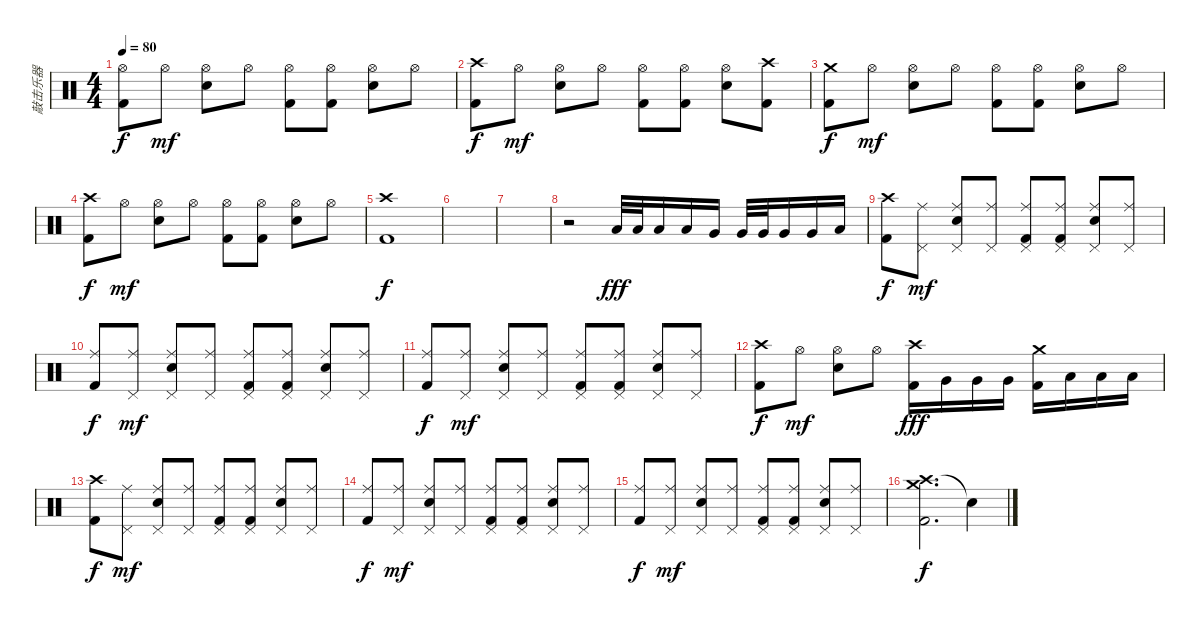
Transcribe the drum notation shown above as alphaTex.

\track ("敲击乐器" "敲击乐器") {instrument percussion}
\staff {score}
\articulation defaults
\ts (4 4)
\tempo 80
\clef neutral
\ks c
("Hi-Hat (open)" "Kick (hit) 2").8{dy f} "Hi-Hat (open)".8{dy mf} ("Electric Snare (hit)" "Hi-Hat (open)").8 "Hi-Hat (open)".8 ("Kick (hit) 2" "Hi-Hat (open)").8 ("Kick (hit) 2" "Hi-Hat (open)").8 ("Electric Snare (hit)" "Hi-Hat (open)").8 "Hi-Hat (open)".8 |
("Crash high (hit)" "Kick (hit) 2").8{dy f} "Hi-Hat (open)".8{dy mf} ("Electric Snare (hit)" "Hi-Hat (open)").8 "Hi-Hat (open)".8 ("Kick (hit) 2" "Hi-Hat (open)").8 ("Kick (hit) 2" "Hi-Hat (open)").8 ("Electric Snare (hit)" "Hi-Hat (open)").8 ("Crash high (hit)" "Kick (hit) 2").8 |
("Crash medium (hit)" "Kick (hit) 2").8{dy f} "Hi-Hat (open)".8{dy mf} ("Electric Snare (hit)" "Hi-Hat (open)").8 "Hi-Hat (open)".8 ("Kick (hit) 2" "Hi-Hat (open)").8 ("Kick (hit) 2" "Hi-Hat (open)").8 ("Electric Snare (hit)" "Hi-Hat (open)").8 "Hi-Hat (open)".8 |
("Crash high (hit)" "Kick (hit) 2").8{dy f} "Hi-Hat (open)".8{dy mf} ("Electric Snare (hit)" "Hi-Hat (open)").8 "Hi-Hat (open)".8 ("Kick (hit) 2" "Hi-Hat (open)").8 ("Kick (hit) 2" "Hi-Hat (open)").8 ("Electric Snare (hit)" "Hi-Hat (open)").8 "Hi-Hat (open)".8 |
("Crash high (hit)" "Kick (hit) 2").1{dy f} |
|
|
r.2 "Low Tom (hit)".32{dy fff} "Low Tom (hit)".32 "Low Tom (hit)".16 "Low Tom (hit)".16 "Very Low Tom (hit)".16 "Very Low Tom (hit)".32 "Very Low Tom (hit)".32 "Very Low Tom (hit)".16 "Very Low Tom (hit)".16 "Low Floor Tom (hit)".16 |
("Crash high (hit)" "Kick (hit) 2").8{dy f} ("Ride (middle)" "Pedal Hi-Hat (hit)").8{dy mf} ("Ride (middle)" "Electric Snare (hit)" "Pedal Hi-Hat (hit)").8 ("Ride (middle)" "Pedal Hi-Hat (hit)").8 ("Ride (middle)" "Kick (hit) 2" "Pedal Hi-Hat (hit)").8 ("Ride (middle)" "Kick (hit) 2" "Pedal Hi-Hat (hit)").8 ("Ride (middle)" "Electric Snare (hit)" "Pedal Hi-Hat (hit)").8 ("Ride (middle)" "Pedal Hi-Hat (hit)").8 |
("Ride (middle)" "Kick (hit) 2").8{dy f} ("Ride (middle)" "Pedal Hi-Hat (hit)").8{dy mf} ("Ride (middle)" "Electric Snare (hit)" "Pedal Hi-Hat (hit)").8 ("Ride (middle)" "Pedal Hi-Hat (hit)").8 ("Ride (middle)" "Kick (hit) 2" "Pedal Hi-Hat (hit)").8 ("Ride (middle)" "Kick (hit) 2" "Pedal Hi-Hat (hit)").8 ("Ride (middle)" "Electric Snare (hit)" "Pedal Hi-Hat (hit)").8 ("Ride (middle)" "Pedal Hi-Hat (hit)").8 |
("Ride (middle)" "Kick (hit) 2").8{dy f} ("Ride (middle)" "Pedal Hi-Hat (hit)").8{dy mf} ("Ride (middle)" "Electric Snare (hit)" "Pedal Hi-Hat (hit)").8 ("Ride (middle)" "Pedal Hi-Hat (hit)").8 ("Ride (middle)" "Kick (hit) 2" "Pedal Hi-Hat (hit)").8 ("Ride (middle)" "Kick (hit) 2" "Pedal Hi-Hat (hit)").8 ("Ride (middle)" "Electric Snare (hit)" "Pedal Hi-Hat (hit)").8 ("Ride (middle)" "Pedal Hi-Hat (hit)").8 |
("Crash high (hit)" "Kick (hit) 2").8{dy f} "Hi-Hat (open)".8{dy mf} ("Electric Snare (hit)" "Hi-Hat (open)").8 "Hi-Hat (open)".8 ("Crash high (hit)" "Kick (hit) 2").16{dy fff} "Very Low Tom (hit)".16 "Very Low Tom (hit)".16 "Very Low Tom (hit)".16 ("Crash medium (hit)" "Kick (hit) 2").16 "Low Tom (hit)".16 "Low Tom (hit)".16 "Low Tom (hit)".16 |
("Crash high (hit)" "Kick (hit) 2").8{dy f} ("Ride (middle)" "Pedal Hi-Hat (hit)").8{dy mf} ("Ride (middle)" "Electric Snare (hit)" "Pedal Hi-Hat (hit)").8 ("Ride (middle)" "Pedal Hi-Hat (hit)").8 ("Ride (middle)" "Kick (hit) 2" "Pedal Hi-Hat (hit)").8 ("Ride (middle)" "Kick (hit) 2" "Pedal Hi-Hat (hit)").8 ("Ride (middle)" "Electric Snare (hit)" "Pedal Hi-Hat (hit)").8 ("Ride (middle)" "Pedal Hi-Hat (hit)").8 |
("Ride (middle)" "Kick (hit) 2").8{dy f} ("Ride (middle)" "Pedal Hi-Hat (hit)").8{dy mf} ("Ride (middle)" "Electric Snare (hit)" "Pedal Hi-Hat (hit)").8 ("Ride (middle)" "Pedal Hi-Hat (hit)").8 ("Ride (middle)" "Kick (hit) 2" "Pedal Hi-Hat (hit)").8 ("Ride (middle)" "Kick (hit) 2" "Pedal Hi-Hat (hit)").8 ("Ride (middle)" "Electric Snare (hit)" "Pedal Hi-Hat (hit)").8 ("Ride (middle)" "Pedal Hi-Hat (hit)").8 |
("Ride (middle)" "Kick (hit) 2").8{dy f} ("Ride (middle)" "Pedal Hi-Hat (hit)").8{dy mf} ("Ride (middle)" "Electric Snare (hit)" "Pedal Hi-Hat (hit)").8 ("Ride (middle)" "Pedal Hi-Hat (hit)").8 ("Ride (middle)" "Kick (hit) 2" "Pedal Hi-Hat (hit)").8 ("Ride (middle)" "Kick (hit) 2" "Pedal Hi-Hat (hit)").8 ("Ride (middle)" "Electric Snare (hit)" "Pedal Hi-Hat (hit)").8 ("Ride (middle)" "Pedal Hi-Hat (hit)").8 |
("Crash high (hit)" "Kick (hit) 2" "Crash medium (hit)").2{d dy f} "Snare (hit)"{t}.4
